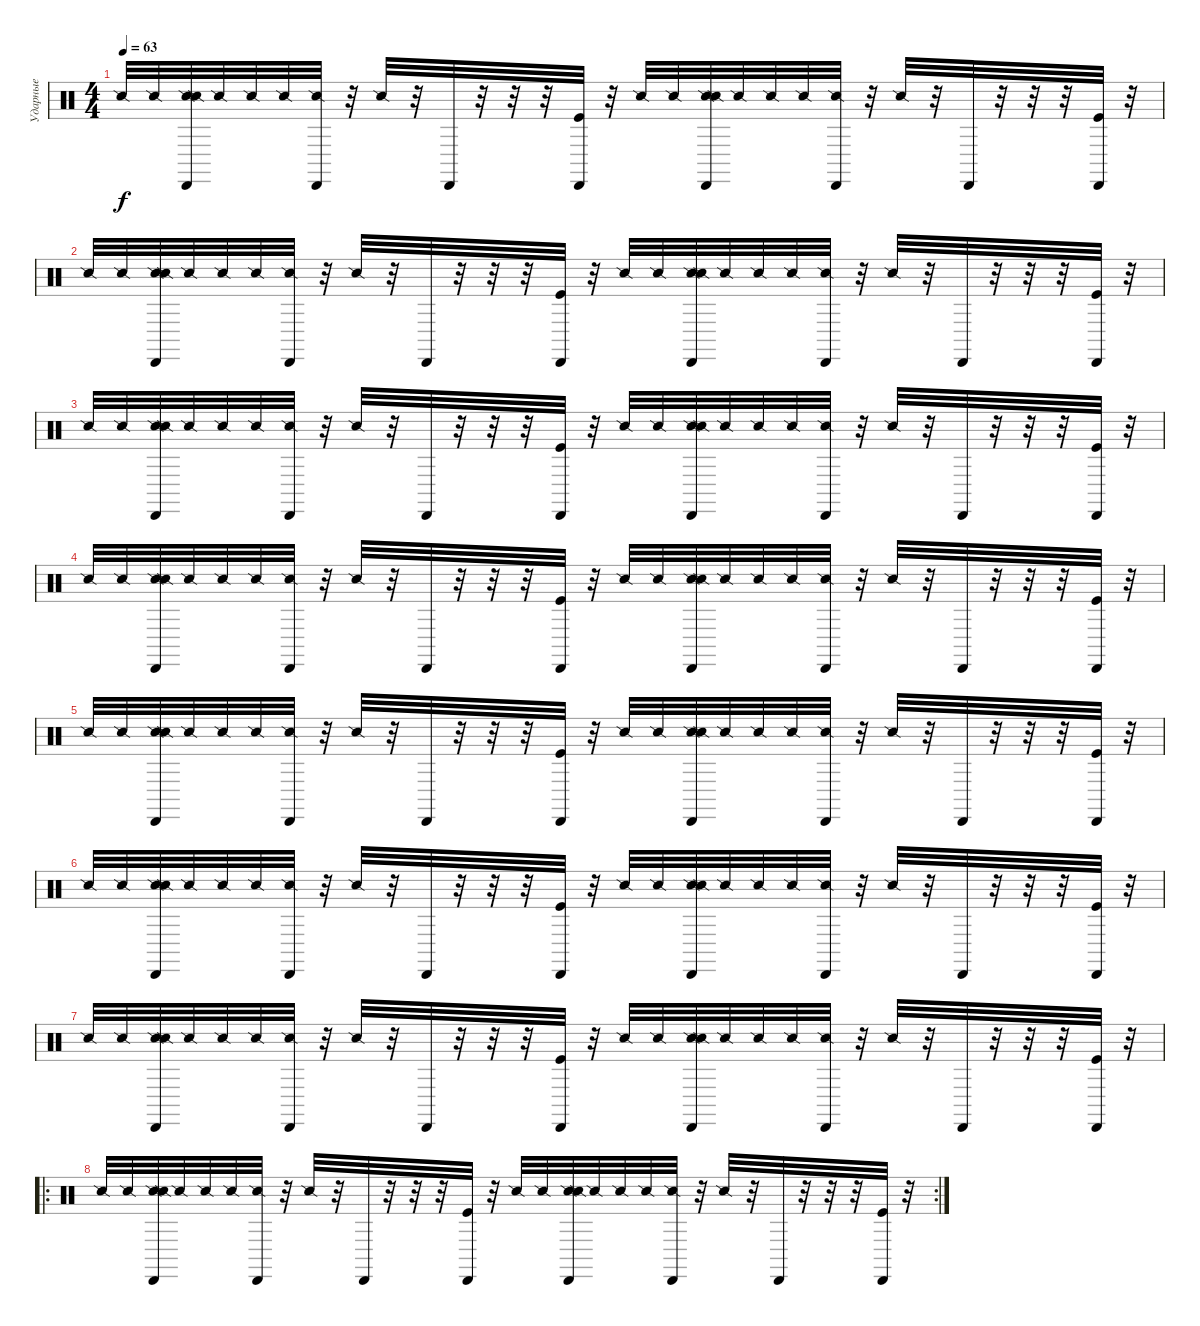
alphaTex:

\track ("Ударные" "Ударные") {instrument percussion}
\staff {score}
\articulation defaults
\ts (4 4)
\tempo 63
\clef neutral
\ks c "Snare (side stick) 2".32{dy f} "Snare (side stick) 2".32
("Snare (side stick) 2" "Snare (side stick) 2" "Cabasa (hit)").32 "Snare (side stick) 2".32 "Snare (side stick) 2".32 "Snare (side stick) 2".32 ("Snare (side stick) 2" "Cabasa (hit)").32 r.32 "Snare (side stick) 2".32 r.32 "Cabasa (hit)".32 r.32 r.32 r.32 ("Kick (hit)" "Cabasa (hit)").32 r.32 "Snare (side stick) 2".32 "Snare (side stick) 2".32 ("Snare (side stick) 2" "Snare (side stick) 2" "Cabasa (hit)").32 "Snare (side stick) 2".32 "Snare (side stick) 2".32 "Snare (side stick) 2".32 ("Snare (side stick) 2" "Cabasa (hit)").32 r.32 "Snare (side stick) 2".32 r.32 "Cabasa (hit)".32 r.32 r.32 r.32 ("Kick (hit)" "Cabasa (hit)").32 r.32 |
"Snare (side stick) 2".32 "Snare (side stick) 2".32 ("Snare (side stick) 2" "Snare (side stick) 2" "Cabasa (hit)").32 "Snare (side stick) 2".32 "Snare (side stick) 2".32 "Snare (side stick) 2".32 ("Snare (side stick) 2" "Cabasa (hit)").32 r.32 "Snare (side stick) 2".32 r.32 "Cabasa (hit)".32 r.32 r.32 r.32 ("Kick (hit)" "Cabasa (hit)").32 r.32 "Snare (side stick) 2".32 "Snare (side stick) 2".32 ("Snare (side stick) 2" "Snare (side stick) 2" "Cabasa (hit)").32 "Snare (side stick) 2".32 "Snare (side stick) 2".32 "Snare (side stick) 2".32 ("Snare (side stick) 2" "Cabasa (hit)").32 r.32 "Snare (side stick) 2".32 r.32 "Cabasa (hit)".32 r.32 r.32 r.32 ("Kick (hit)" "Cabasa (hit)").32 r.32 |
"Snare (side stick) 2".32 "Snare (side stick) 2".32 ("Snare (side stick) 2" "Snare (side stick) 2" "Cabasa (hit)").32 "Snare (side stick) 2".32 "Snare (side stick) 2".32 "Snare (side stick) 2".32 ("Snare (side stick) 2" "Cabasa (hit)").32 r.32 "Snare (side stick) 2".32 r.32 "Cabasa (hit)".32 r.32 r.32 r.32 ("Kick (hit)" "Cabasa (hit)").32 r.32 "Snare (side stick) 2".32 "Snare (side stick) 2".32 ("Snare (side stick) 2" "Snare (side stick) 2" "Cabasa (hit)").32 "Snare (side stick) 2".32 "Snare (side stick) 2".32 "Snare (side stick) 2".32 ("Snare (side stick) 2" "Cabasa (hit)").32 r.32 "Snare (side stick) 2".32 r.32 "Cabasa (hit)".32 r.32 r.32 r.32 ("Kick (hit)" "Cabasa (hit)").32 r.32 |
"Snare (side stick) 2".32 "Snare (side stick) 2".32 ("Snare (side stick) 2" "Snare (side stick) 2" "Cabasa (hit)").32 "Snare (side stick) 2".32 "Snare (side stick) 2".32 "Snare (side stick) 2".32 ("Snare (side stick) 2" "Cabasa (hit)").32 r.32 "Snare (side stick) 2".32 r.32 "Cabasa (hit)".32 r.32 r.32 r.32 ("Kick (hit)" "Cabasa (hit)").32 r.32 "Snare (side stick) 2".32 "Snare (side stick) 2".32 ("Snare (side stick) 2" "Snare (side stick) 2" "Cabasa (hit)").32 "Snare (side stick) 2".32 "Snare (side stick) 2".32 "Snare (side stick) 2".32 ("Snare (side stick) 2" "Cabasa (hit)").32 r.32 "Snare (side stick) 2".32 r.32 "Cabasa (hit)".32 r.32 r.32 r.32 ("Kick (hit)" "Cabasa (hit)").32 r.32 |
"Snare (side stick) 2".32 "Snare (side stick) 2".32 ("Snare (side stick) 2" "Snare (side stick) 2" "Cabasa (hit)").32 "Snare (side stick) 2".32 "Snare (side stick) 2".32 "Snare (side stick) 2".32 ("Snare (side stick) 2" "Cabasa (hit)").32 r.32 "Snare (side stick) 2".32 r.32 "Cabasa (hit)".32 r.32 r.32 r.32 ("Kick (hit)" "Cabasa (hit)").32 r.32 "Snare (side stick) 2".32 "Snare (side stick) 2".32 ("Snare (side stick) 2" "Snare (side stick) 2" "Cabasa (hit)").32 "Snare (side stick) 2".32 "Snare (side stick) 2".32 "Snare (side stick) 2".32 ("Snare (side stick) 2" "Cabasa (hit)").32 r.32 "Snare (side stick) 2".32 r.32 "Cabasa (hit)".32 r.32 r.32 r.32 ("Kick (hit)" "Cabasa (hit)").32 r.32 |
"Snare (side stick) 2".32 "Snare (side stick) 2".32 ("Snare (side stick) 2" "Snare (side stick) 2" "Cabasa (hit)").32 "Snare (side stick) 2".32 "Snare (side stick) 2".32 "Snare (side stick) 2".32 ("Snare (side stick) 2" "Cabasa (hit)").32 r.32 "Snare (side stick) 2".32 r.32 "Cabasa (hit)".32 r.32 r.32 r.32 ("Kick (hit)" "Cabasa (hit)").32 r.32 "Snare (side stick) 2".32 "Snare (side stick) 2".32 ("Snare (side stick) 2" "Snare (side stick) 2" "Cabasa (hit)").32 "Snare (side stick) 2".32 "Snare (side stick) 2".32 "Snare (side stick) 2".32 ("Snare (side stick) 2" "Cabasa (hit)").32 r.32 "Snare (side stick) 2".32 r.32 "Cabasa (hit)".32 r.32 r.32 r.32 ("Kick (hit)" "Cabasa (hit)").32 r.32 |
"Snare (side stick) 2".32 "Snare (side stick) 2".32 ("Snare (side stick) 2" "Snare (side stick) 2" "Cabasa (hit)").32 "Snare (side stick) 2".32 "Snare (side stick) 2".32 "Snare (side stick) 2".32 ("Snare (side stick) 2" "Cabasa (hit)").32 r.32 "Snare (side stick) 2".32 r.32 "Cabasa (hit)".32 r.32 r.32 r.32 ("Kick (hit)" "Cabasa (hit)").32 r.32 "Snare (side stick) 2".32 "Snare (side stick) 2".32 ("Snare (side stick) 2" "Snare (side stick) 2" "Cabasa (hit)").32 "Snare (side stick) 2".32 "Snare (side stick) 2".32 "Snare (side stick) 2".32 ("Snare (side stick) 2" "Cabasa (hit)").32 r.32 "Snare (side stick) 2".32 r.32 "Cabasa (hit)".32 r.32 r.32 r.32 ("Kick (hit)" "Cabasa (hit)").32 r.32 |
\ro
\rc 2 "Snare (side stick) 2".32 "Snare (side stick) 2".32
("Snare (side stick) 2" "Snare (side stick) 2" "Cabasa (hit)").32 "Snare (side stick) 2".32 "Snare (side stick) 2".32 "Snare (side stick) 2".32 ("Snare (side stick) 2" "Cabasa (hit)").32 r.32 "Snare (side stick) 2".32 r.32 "Cabasa (hit)".32 r.32 r.32 r.32 ("Kick (hit)" "Cabasa (hit)").32 r.32 "Snare (side stick) 2".32 "Snare (side stick) 2".32 ("Snare (side stick) 2" "Snare (side stick) 2" "Cabasa (hit)").32 "Snare (side stick) 2".32 "Snare (side stick) 2".32 "Snare (side stick) 2".32 ("Snare (side stick) 2" "Cabasa (hit)").32 r.32 "Snare (side stick) 2".32 r.32 "Cabasa (hit)".32 r.32 r.32 r.32 ("Kick (hit)" "Cabasa (hit)").32 r.32
